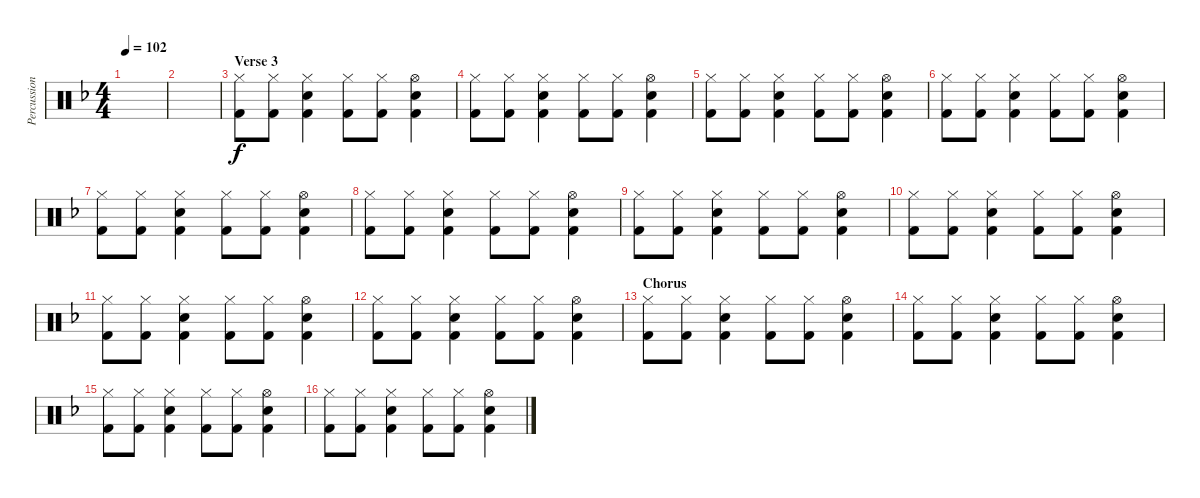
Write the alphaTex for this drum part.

\track ("Percussion" "Percussion") {instrument percussion}
\staff {score}
\articulation defaults
\ts (4 4)
\tempo 102
\clef neutral
\ks dminor
|
|
\section ("" "Verse 3")
("Hi-Hat (closed)" "Kick (hit) 2").8 ("Hi-Hat (closed)" "Kick (hit) 2").8 ("Hi-Hat (closed)" "Kick (hit) 2" "Snare (hit) 2").4 ("Hi-Hat (closed)" "Kick (hit) 2").8 ("Hi-Hat (closed)" "Kick (hit) 2").8 ("Hi-Hat (open)" "Kick (hit) 2" "Snare (hit) 2").4 |
("Hi-Hat (closed)" "Kick (hit) 2").8 ("Hi-Hat (closed)" "Kick (hit) 2").8 ("Hi-Hat (closed)" "Kick (hit) 2" "Snare (hit) 2").4 ("Hi-Hat (closed)" "Kick (hit) 2").8 ("Hi-Hat (closed)" "Kick (hit) 2").8 ("Hi-Hat (open)" "Kick (hit) 2" "Snare (hit) 2").4 |
("Hi-Hat (closed)" "Kick (hit) 2").8 ("Hi-Hat (closed)" "Kick (hit) 2").8 ("Hi-Hat (closed)" "Kick (hit) 2" "Snare (hit) 2").4 ("Hi-Hat (closed)" "Kick (hit) 2").8 ("Hi-Hat (closed)" "Kick (hit) 2").8 ("Hi-Hat (open)" "Kick (hit) 2" "Snare (hit) 2").4 |
("Hi-Hat (closed)" "Kick (hit) 2").8 ("Hi-Hat (closed)" "Kick (hit) 2").8 ("Hi-Hat (closed)" "Kick (hit) 2" "Snare (hit) 2").4 ("Hi-Hat (closed)" "Kick (hit) 2").8 ("Hi-Hat (closed)" "Kick (hit) 2").8 ("Hi-Hat (open)" "Kick (hit) 2" "Snare (hit) 2").4 |
("Hi-Hat (closed)" "Kick (hit) 2").8 ("Hi-Hat (closed)" "Kick (hit) 2").8 ("Hi-Hat (closed)" "Kick (hit) 2" "Snare (hit) 2").4 ("Hi-Hat (closed)" "Kick (hit) 2").8 ("Hi-Hat (closed)" "Kick (hit) 2").8 ("Hi-Hat (open)" "Kick (hit) 2" "Snare (hit) 2").4 |
("Hi-Hat (closed)" "Kick (hit) 2").8 ("Hi-Hat (closed)" "Kick (hit) 2").8 ("Hi-Hat (closed)" "Kick (hit) 2" "Snare (hit) 2").4 ("Hi-Hat (closed)" "Kick (hit) 2").8 ("Hi-Hat (closed)" "Kick (hit) 2").8 ("Hi-Hat (open)" "Kick (hit) 2" "Snare (hit) 2").4 |
("Hi-Hat (closed)" "Kick (hit) 2").8 ("Hi-Hat (closed)" "Kick (hit) 2").8 ("Hi-Hat (closed)" "Kick (hit) 2" "Snare (hit) 2").4 ("Hi-Hat (closed)" "Kick (hit) 2").8 ("Hi-Hat (closed)" "Kick (hit) 2").8 ("Hi-Hat (open)" "Kick (hit) 2" "Snare (hit) 2").4 |
("Hi-Hat (closed)" "Kick (hit) 2").8 ("Hi-Hat (closed)" "Kick (hit) 2").8 ("Hi-Hat (closed)" "Kick (hit) 2" "Snare (hit) 2").4 ("Hi-Hat (closed)" "Kick (hit) 2").8 ("Hi-Hat (closed)" "Kick (hit) 2").8 ("Hi-Hat (open)" "Kick (hit) 2" "Snare (hit) 2").4 |
("Hi-Hat (closed)" "Kick (hit) 2").8 ("Hi-Hat (closed)" "Kick (hit) 2").8 ("Hi-Hat (closed)" "Kick (hit) 2" "Snare (hit) 2").4 ("Hi-Hat (closed)" "Kick (hit) 2").8 ("Hi-Hat (closed)" "Kick (hit) 2").8 ("Hi-Hat (open)" "Kick (hit) 2" "Snare (hit) 2").4 |
("Hi-Hat (closed)" "Kick (hit) 2").8 ("Hi-Hat (closed)" "Kick (hit) 2").8 ("Hi-Hat (closed)" "Kick (hit) 2" "Snare (hit) 2").4 ("Hi-Hat (closed)" "Kick (hit) 2").8 ("Hi-Hat (closed)" "Kick (hit) 2").8 ("Hi-Hat (open)" "Kick (hit) 2" "Snare (hit) 2").4 |
\section ("" "Chorus")
("Hi-Hat (closed)" "Kick (hit) 2").8 ("Hi-Hat (closed)" "Kick (hit) 2").8 ("Hi-Hat (closed)" "Kick (hit) 2" "Snare (hit) 2").4 ("Hi-Hat (closed)" "Kick (hit) 2").8 ("Hi-Hat (closed)" "Kick (hit) 2").8 ("Hi-Hat (open)" "Kick (hit) 2" "Snare (hit) 2").4 |
("Hi-Hat (closed)" "Kick (hit) 2").8 ("Hi-Hat (closed)" "Kick (hit) 2").8 ("Hi-Hat (closed)" "Kick (hit) 2" "Snare (hit) 2").4 ("Hi-Hat (closed)" "Kick (hit) 2").8 ("Hi-Hat (closed)" "Kick (hit) 2").8 ("Hi-Hat (open)" "Kick (hit) 2" "Snare (hit) 2").4 |
("Hi-Hat (closed)" "Kick (hit) 2").8 ("Hi-Hat (closed)" "Kick (hit) 2").8 ("Hi-Hat (closed)" "Kick (hit) 2" "Snare (hit) 2").4 ("Hi-Hat (closed)" "Kick (hit) 2").8 ("Hi-Hat (closed)" "Kick (hit) 2").8 ("Hi-Hat (open)" "Kick (hit) 2" "Snare (hit) 2").4 |
("Hi-Hat (closed)" "Kick (hit) 2").8 ("Hi-Hat (closed)" "Kick (hit) 2").8 ("Hi-Hat (closed)" "Kick (hit) 2" "Snare (hit) 2").4 ("Hi-Hat (closed)" "Kick (hit) 2").8 ("Hi-Hat (closed)" "Kick (hit) 2").8 ("Hi-Hat (open)" "Kick (hit) 2" "Snare (hit) 2").4
